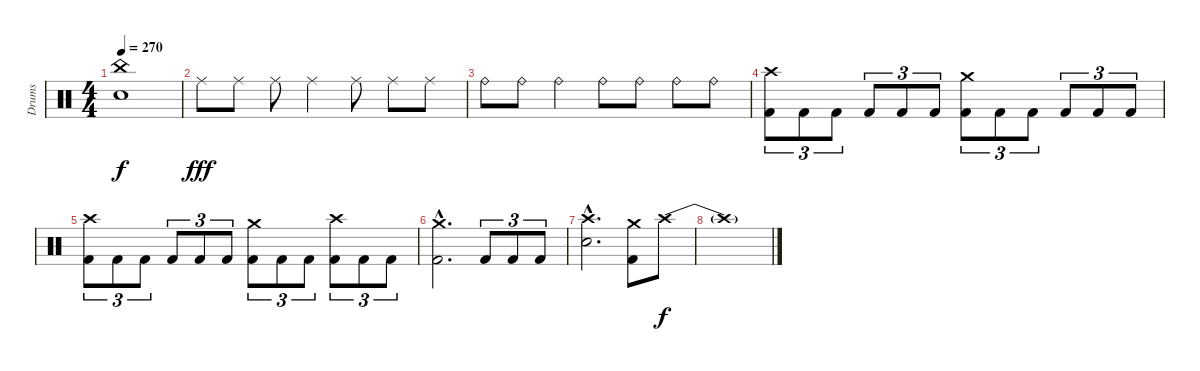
\track ("Drums" "Drums") {instrument percussion}
\staff {score}
\articulation defaults
\ts (4 4)
\tempo 270
\clef neutral
\ks c
("Snare (hit) 2" "China (hit)").1{dy f} |
"Ride (middle)".8{dy fff} "Ride (middle)".8 "Ride (middle)".8 "Ride (middle)".4 "Ride (middle)".8 "Ride (middle)".8 "Ride (middle)".8 |
"Ride (bell)".8 "Ride (bell)".8 "Ride (bell)".4 "Ride (bell)".8 "Ride (bell)".8 "Ride (bell)".8 "Ride (bell)".8 |
("Kick (hit) 2" "Crash high (hit)").8{tu (3 2)} "Kick (hit) 2".8{tu (3 2)} "Kick (hit) 2".8{tu (3 2)} "Kick (hit) 2".8{tu (3 2)} "Kick (hit) 2".8{tu (3 2)} "Kick (hit) 2".8{tu (3 2)} ("Kick (hit) 2" "Crash medium (hit)").8{tu (3 2)} "Kick (hit) 2".8{tu (3 2)} "Kick (hit) 2".8{tu (3 2)} "Kick (hit) 2".8{tu (3 2)} "Kick (hit) 2".8{tu (3 2)} "Kick (hit) 2".8{tu (3 2)} |
("Kick (hit) 2" "Crash high (hit)").8{tu (3 2)} "Kick (hit) 2".8{tu (3 2)} "Kick (hit) 2".8{tu (3 2)} "Kick (hit) 2".8{tu (3 2)} "Kick (hit) 2".8{tu (3 2)} "Kick (hit) 2".8{tu (3 2)} ("Kick (hit) 2" "Crash medium (hit)").8{tu (3 2)} "Kick (hit) 2".8{tu (3 2)} "Kick (hit) 2".8{tu (3 2)} ("Kick (hit) 2" "Crash high (hit)").8{tu (3 2)} "Kick (hit) 2".8{tu (3 2)} "Kick (hit) 2".8{tu (3 2)} |
("Crash medium (hit)"{hac} "Kick (hit) 2"{hac}).2{d} "Kick (hit) 2".8{tu (3 2)} "Kick (hit) 2".8{tu (3 2)} "Kick (hit) 2".8{tu (3 2)} |
("Snare (hit) 2"{hac} "Crash high (hit)"{hac}).2{d} ("Kick (hit) 2" "Crash medium (hit)").8 "Crash high (hit)"{be (bend 0 0 60 12)}.8{dy f volume 0} |
"Crash high (hit)"{t}.1
